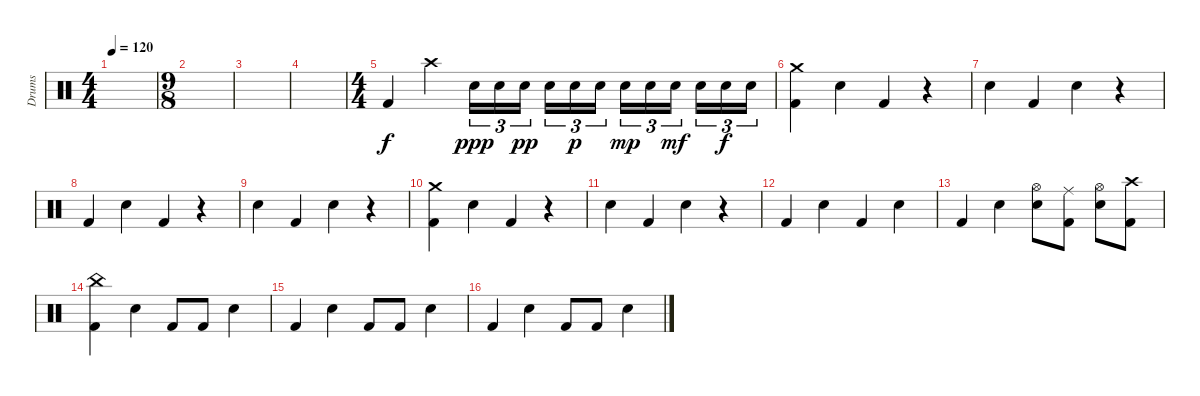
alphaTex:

\track ("Drums" "Drums") {instrument percussion}
\staff {score}
\articulation defaults
\ts (4 4)
\tempo 120
\clef neutral
\ks c
|
\ts (9 8)
|
|
|
\ts (4 4)
"Kick (hit) 2".4 "Crash high (hit)".4 "Snare (hit) 2".16{tu (3 2) dy ppp} "Snare (hit) 2".16{tu (3 2)} "Snare (hit) 2".16{tu (3 2) dy pp} "Snare (hit) 2".16{tu (3 2)} "Snare (hit) 2".16{tu (3 2) dy p} "Snare (hit) 2".16{tu (3 2)} "Snare (hit) 2".16{tu (3 2) dy mp} "Snare (hit) 2".16{tu (3 2)} "Snare (hit) 2".16{tu (3 2) dy mf} "Snare (hit) 2".16{tu (3 2)} "Snare (hit) 2".16{tu (3 2) dy f} "Snare (hit) 2".16{tu (3 2)} |
("Crash medium (hit)" "Kick (hit) 2").4 "Snare (hit) 2".4 "Kick (hit) 2".4 r.4 |
"Snare (hit) 2".4 "Kick (hit) 2".4 "Snare (hit) 2".4 r.4 |
"Kick (hit) 2".4 "Snare (hit) 2".4 "Kick (hit) 2".4 r.4 |
"Snare (hit) 2".4 "Kick (hit) 2".4 "Snare (hit) 2".4 r.4 |
("Crash medium (hit)" "Kick (hit) 2").4 "Snare (hit) 2".4 "Kick (hit) 2".4 r.4 |
"Snare (hit) 2".4 "Kick (hit) 2".4 "Snare (hit) 2".4 r.4 |
"Kick (hit) 2".4 "Snare (hit) 2".4 "Kick (hit) 2".4 "Snare (hit) 2".4 |
"Kick (hit) 2".4 "Snare (hit) 2".4 ("Hi-Hat (open)" "Snare (hit) 2").8 ("Ride (middle)" "Kick (hit) 2").8 ("Hi-Hat (open)" "Snare (hit) 2").8 ("Crash high (hit)" "Kick (hit) 2").8 |
("China (hit)" "Kick (hit) 2").4 "Snare (hit) 2".4 "Kick (hit) 2".8 "Kick (hit) 2".8 "Snare (hit) 2".4 |
"Kick (hit) 2".4 "Snare (hit) 2".4 "Kick (hit) 2".8 "Kick (hit) 2".8 "Snare (hit) 2".4 |
"Kick (hit) 2".4 "Snare (hit) 2".4 "Kick (hit) 2".8 "Kick (hit) 2".8 "Snare (hit) 2".4
